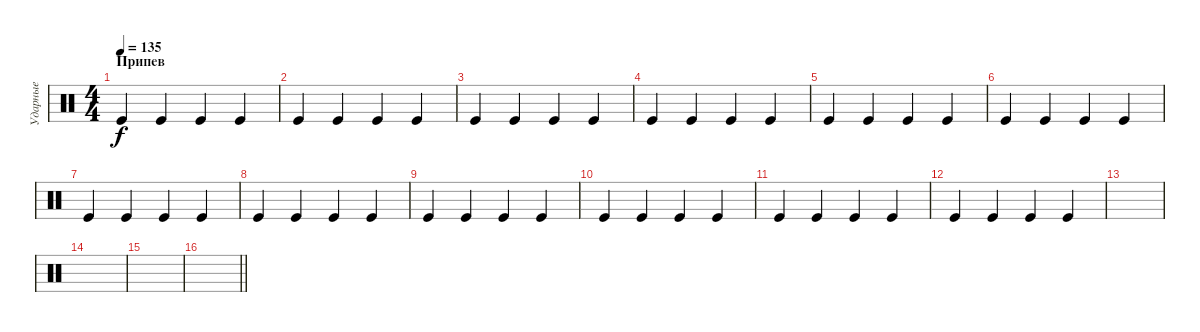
\track ("Ударные" "Ударные") {instrument percussion}
\staff {score}
\articulation defaults
\ts (4 4)
\section ("" "Припев")
\tempo 135
\clef neutral
\ks c "Kick (hit)".4{dy f} "Kick (hit)".4 "Kick (hit)".4 "Kick (hit)".4
|
"Kick (hit)".4 "Kick (hit)".4 "Kick (hit)".4 "Kick (hit)".4 |
"Kick (hit)".4 "Kick (hit)".4 "Kick (hit)".4 "Kick (hit)".4 |
"Kick (hit)".4 "Kick (hit)".4 "Kick (hit)".4 "Kick (hit)".4 |
"Kick (hit)".4 "Kick (hit)".4 "Kick (hit)".4 "Kick (hit)".4 |
"Kick (hit)".4 "Kick (hit)".4 "Kick (hit)".4 "Kick (hit)".4 |
"Kick (hit)".4 "Kick (hit)".4 "Kick (hit)".4 "Kick (hit)".4 |
"Kick (hit)".4 "Kick (hit)".4 "Kick (hit)".4 "Kick (hit)".4 |
"Kick (hit)".4 "Kick (hit)".4 "Kick (hit)".4 "Kick (hit)".4 |
"Kick (hit)".4 "Kick (hit)".4 "Kick (hit)".4 "Kick (hit)".4 |
"Kick (hit)".4 "Kick (hit)".4 "Kick (hit)".4 "Kick (hit)".4 |
"Kick (hit)".4 "Kick (hit)".4 "Kick (hit)".4 "Kick (hit)".4 |
|
|
|
\barLineRight lightlight
